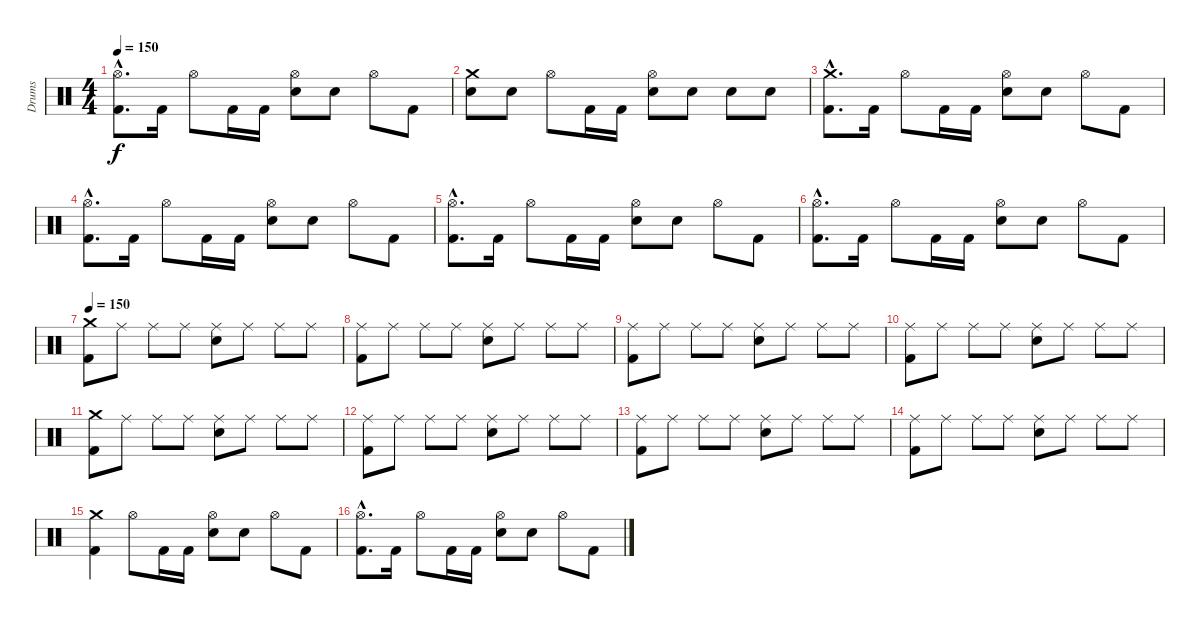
\track ("Drums" "Drums") {instrument percussion}
\staff {score}
\articulation defaults
\ts (4 4)
\tempo 150
\clef neutral
\ks c
("Kick (hit) 2"{hac} "Hi-Hat (open)"{hac}).8{d dy f} "Kick (hit) 2".16 "Hi-Hat (open)".8 "Kick (hit) 2".16 "Kick (hit) 2".16 ("Electric Snare (hit)" "Hi-Hat (open)").8 "Electric Snare (hit)".8 "Hi-Hat (open)".8 "Kick (hit) 2".8 |
("Electric Snare (hit)" "Crash medium (hit)").8 "Electric Snare (hit)".8 "Hi-Hat (open)".8 "Kick (hit) 2".16 "Kick (hit) 2".16 ("Electric Snare (hit)" "Hi-Hat (open)").8 "Electric Snare (hit)".8 "Electric Snare (hit)".8 "Electric Snare (hit)".8 |
("Kick (hit) 2"{hac} "Crash medium (hit)"{hac}).8{d} "Kick (hit) 2".16 "Hi-Hat (open)".8 "Kick (hit) 2".16 "Kick (hit) 2".16 ("Electric Snare (hit)" "Hi-Hat (open)").8 "Electric Snare (hit)".8 "Hi-Hat (open)".8 "Kick (hit) 2".8 |
("Kick (hit) 2"{hac} "Hi-Hat (open)"{hac}).8{d} "Kick (hit) 2".16 "Hi-Hat (open)".8 "Kick (hit) 2".16 "Kick (hit) 2".16 ("Electric Snare (hit)" "Hi-Hat (open)").8 "Electric Snare (hit)".8 "Hi-Hat (open)".8 "Kick (hit) 2".8 |
("Kick (hit) 2"{hac} "Hi-Hat (open)"{hac}).8{d} "Kick (hit) 2".16 "Hi-Hat (open)".8 "Kick (hit) 2".16 "Kick (hit) 2".16 ("Electric Snare (hit)" "Hi-Hat (open)").8 "Electric Snare (hit)".8 "Hi-Hat (open)".8 "Kick (hit) 2".8 |
("Kick (hit) 2"{hac} "Hi-Hat (open)"{hac}).8{d} "Kick (hit) 2".16 "Hi-Hat (open)".8 "Kick (hit) 2".16 "Kick (hit) 2".16 ("Electric Snare (hit)" "Hi-Hat (open)").8 "Electric Snare (hit)".8 "Hi-Hat (open)".8 "Kick (hit) 2".8 |
\tempo 150
("Kick (hit) 2" "Crash medium (hit)").8 "Ride (middle)".8 "Ride (middle)".8 "Ride (middle)".8 ("Electric Snare (hit)" "Ride (middle)").8 "Ride (middle)".8 "Ride (middle)".8 "Ride (middle)".8 |
("Kick (hit) 2" "Ride (middle)").8 "Ride (middle)".8 "Ride (middle)".8 "Ride (middle)".8 ("Electric Snare (hit)" "Ride (middle)").8 "Ride (middle)".8 "Ride (middle)".8 "Ride (middle)".8 |
("Kick (hit) 2" "Ride (middle)").8 "Ride (middle)".8 "Ride (middle)".8 "Ride (middle)".8 ("Electric Snare (hit)" "Ride (middle)").8 "Ride (middle)".8 "Ride (middle)".8 "Ride (middle)".8 |
("Kick (hit) 2" "Ride (middle)").8 "Ride (middle)".8 "Ride (middle)".8 "Ride (middle)".8 ("Electric Snare (hit)" "Ride (middle)").8 "Ride (middle)".8 "Ride (middle)".8 "Ride (middle)".8 |
("Kick (hit) 2" "Crash medium (hit)").8 "Ride (middle)".8 "Ride (middle)".8 "Ride (middle)".8 ("Electric Snare (hit)" "Ride (middle)").8 "Ride (middle)".8 "Ride (middle)".8 "Ride (middle)".8 |
("Kick (hit) 2" "Ride (middle)").8 "Ride (middle)".8 "Ride (middle)".8 "Ride (middle)".8 ("Electric Snare (hit)" "Ride (middle)").8 "Ride (middle)".8 "Ride (middle)".8 "Ride (middle)".8 |
("Kick (hit) 2" "Ride (middle)").8 "Ride (middle)".8 "Ride (middle)".8 "Ride (middle)".8 ("Electric Snare (hit)" "Ride (middle)").8 "Ride (middle)".8 "Ride (middle)".8 "Ride (middle)".8 |
("Kick (hit) 2" "Ride (middle)").8 "Ride (middle)".8 "Ride (middle)".8 "Ride (middle)".8 ("Electric Snare (hit)" "Ride (middle)").8 "Ride (middle)".8 "Ride (middle)".8 "Ride (middle)".8 |
("Kick (hit) 2" "Crash medium (hit)").4 "Hi-Hat (open)".8 "Kick (hit) 2".16 "Kick (hit) 2".16 ("Electric Snare (hit)" "Hi-Hat (open)").8 "Electric Snare (hit)".8 "Hi-Hat (open)".8 "Kick (hit) 2".8 |
("Kick (hit) 2"{hac} "Hi-Hat (open)"{hac}).8{d} "Kick (hit) 2".16 "Hi-Hat (open)".8 "Kick (hit) 2".16 "Kick (hit) 2".16 ("Electric Snare (hit)" "Hi-Hat (open)").8 "Electric Snare (hit)".8 "Hi-Hat (open)".8 "Kick (hit) 2".8
